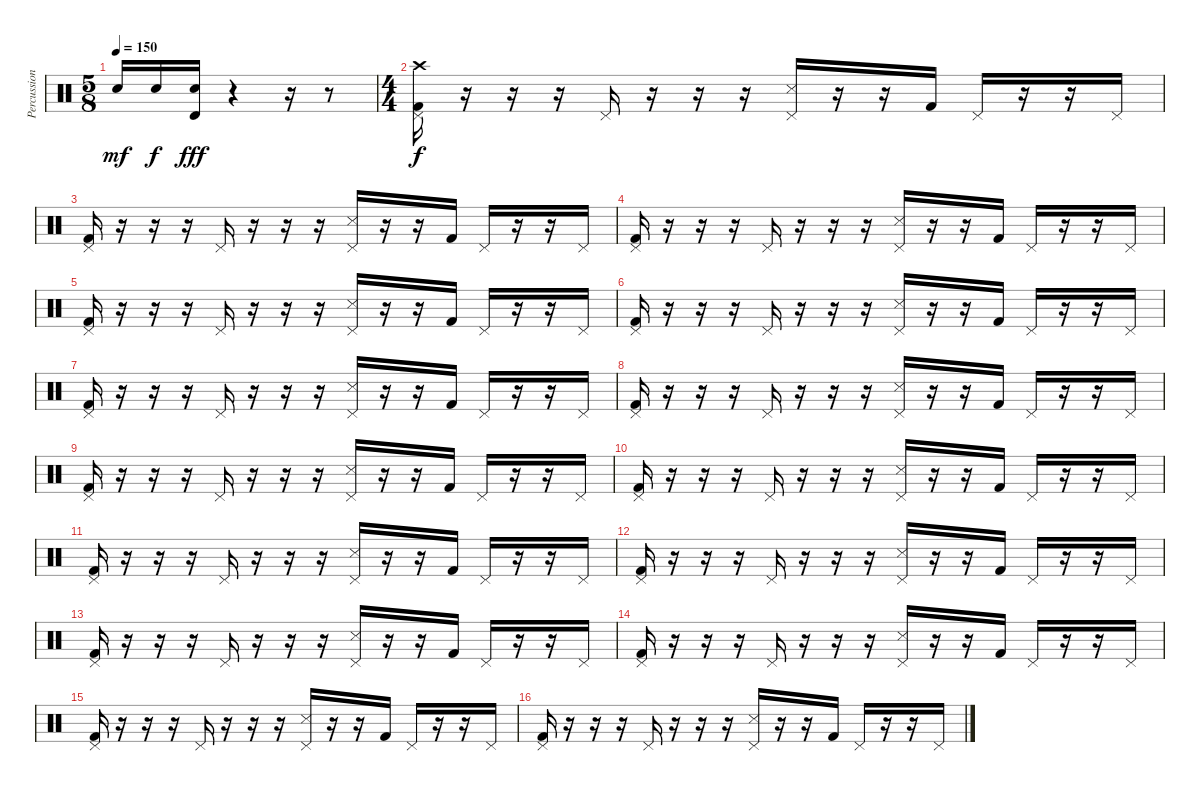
\track ("Percussion" "Percussion") {instrument percussion}
\staff {score}
\articulation defaults
\ts (5 8)
\tempo 150
\clef neutral
\ks c "Electric Snare (hit)".16{dy mf} "Electric Snare (hit)".16{dy f}
("Timbale high (hit)" "Electric Snare (hit)").16{dy fff} r.4 r.16 r.8 |
\ts (4 4)
("Crash high (hit)" "Pedal Hi-Hat (hit)" "Kick (hit) 2").16{dy f} r.16 r.16 r.16 "Pedal Hi-Hat (hit)".16 r.16 r.16 r.16 ("Pedal Hi-Hat (hit)" "Snare (side stick) 3").16 r.16 r.16 "Kick (hit) 2".16 "Pedal Hi-Hat (hit)".16 r.16 r.16 "Pedal Hi-Hat (hit)".16 |
("Pedal Hi-Hat (hit)" "Kick (hit) 2").16 r.16 r.16 r.16 "Pedal Hi-Hat (hit)".16 r.16 r.16 r.16 ("Pedal Hi-Hat (hit)" "Snare (side stick) 3").16 r.16 r.16 "Kick (hit) 2".16 "Pedal Hi-Hat (hit)".16 r.16 r.16 "Pedal Hi-Hat (hit)".16 |
("Pedal Hi-Hat (hit)" "Kick (hit) 2").16 r.16 r.16 r.16 "Pedal Hi-Hat (hit)".16 r.16 r.16 r.16 ("Pedal Hi-Hat (hit)" "Snare (side stick) 3").16 r.16 r.16 "Kick (hit) 2".16 "Pedal Hi-Hat (hit)".16 r.16 r.16 "Pedal Hi-Hat (hit)".16 |
("Pedal Hi-Hat (hit)" "Kick (hit) 2").16 r.16 r.16 r.16 "Pedal Hi-Hat (hit)".16 r.16 r.16 r.16 ("Pedal Hi-Hat (hit)" "Snare (side stick) 3").16 r.16 r.16 "Kick (hit) 2".16 "Pedal Hi-Hat (hit)".16 r.16 r.16 "Pedal Hi-Hat (hit)".16 |
("Pedal Hi-Hat (hit)" "Kick (hit) 2").16 r.16 r.16 r.16 "Pedal Hi-Hat (hit)".16 r.16 r.16 r.16 ("Pedal Hi-Hat (hit)" "Snare (side stick) 3").16 r.16 r.16 "Kick (hit) 2".16 "Pedal Hi-Hat (hit)".16 r.16 r.16 "Pedal Hi-Hat (hit)".16 |
("Pedal Hi-Hat (hit)" "Kick (hit) 2").16 r.16 r.16 r.16 "Pedal Hi-Hat (hit)".16 r.16 r.16 r.16 ("Pedal Hi-Hat (hit)" "Snare (side stick) 3").16 r.16 r.16 "Kick (hit) 2".16 "Pedal Hi-Hat (hit)".16 r.16 r.16 "Pedal Hi-Hat (hit)".16 |
("Pedal Hi-Hat (hit)" "Kick (hit) 2").16 r.16 r.16 r.16 "Pedal Hi-Hat (hit)".16 r.16 r.16 r.16 ("Pedal Hi-Hat (hit)" "Snare (side stick) 3").16 r.16 r.16 "Kick (hit) 2".16 "Pedal Hi-Hat (hit)".16 r.16 r.16 "Pedal Hi-Hat (hit)".16 |
("Pedal Hi-Hat (hit)" "Kick (hit) 2").16 r.16 r.16 r.16 "Pedal Hi-Hat (hit)".16 r.16 r.16 r.16 ("Pedal Hi-Hat (hit)" "Snare (side stick) 3").16 r.16 r.16 "Kick (hit) 2".16 "Pedal Hi-Hat (hit)".16 r.16 r.16 "Pedal Hi-Hat (hit)".16 |
("Pedal Hi-Hat (hit)" "Kick (hit) 2").16 r.16 r.16 r.16 "Pedal Hi-Hat (hit)".16 r.16 r.16 r.16 ("Pedal Hi-Hat (hit)" "Snare (side stick) 3").16 r.16 r.16 "Kick (hit) 2".16 "Pedal Hi-Hat (hit)".16 r.16 r.16 "Pedal Hi-Hat (hit)".16 |
("Pedal Hi-Hat (hit)" "Kick (hit) 2").16 r.16 r.16 r.16 "Pedal Hi-Hat (hit)".16 r.16 r.16 r.16 ("Pedal Hi-Hat (hit)" "Snare (side stick) 3").16 r.16 r.16 "Kick (hit) 2".16 "Pedal Hi-Hat (hit)".16 r.16 r.16 "Pedal Hi-Hat (hit)".16 |
("Pedal Hi-Hat (hit)" "Kick (hit) 2").16 r.16 r.16 r.16 "Pedal Hi-Hat (hit)".16 r.16 r.16 r.16 ("Pedal Hi-Hat (hit)" "Snare (side stick) 3").16 r.16 r.16 "Kick (hit) 2".16 "Pedal Hi-Hat (hit)".16 r.16 r.16 "Pedal Hi-Hat (hit)".16 |
("Pedal Hi-Hat (hit)" "Kick (hit) 2").16 r.16 r.16 r.16 "Pedal Hi-Hat (hit)".16 r.16 r.16 r.16 ("Pedal Hi-Hat (hit)" "Snare (side stick) 3").16 r.16 r.16 "Kick (hit) 2".16 "Pedal Hi-Hat (hit)".16 r.16 r.16 "Pedal Hi-Hat (hit)".16 |
("Pedal Hi-Hat (hit)" "Kick (hit) 2").16 r.16 r.16 r.16 "Pedal Hi-Hat (hit)".16 r.16 r.16 r.16 ("Pedal Hi-Hat (hit)" "Snare (side stick) 3").16 r.16 r.16 "Kick (hit) 2".16 "Pedal Hi-Hat (hit)".16 r.16 r.16 "Pedal Hi-Hat (hit)".16 |
("Pedal Hi-Hat (hit)" "Kick (hit) 2").16 r.16 r.16 r.16 "Pedal Hi-Hat (hit)".16 r.16 r.16 r.16 ("Pedal Hi-Hat (hit)" "Snare (side stick) 3").16 r.16 r.16 "Kick (hit) 2".16 "Pedal Hi-Hat (hit)".16 r.16 r.16 "Pedal Hi-Hat (hit)".16 |
("Pedal Hi-Hat (hit)" "Kick (hit) 2").16 r.16 r.16 r.16 "Pedal Hi-Hat (hit)".16 r.16 r.16 r.16 ("Pedal Hi-Hat (hit)" "Snare (side stick) 3").16 r.16 r.16 "Kick (hit) 2".16 "Pedal Hi-Hat (hit)".16 r.16 r.16 "Pedal Hi-Hat (hit)".16
